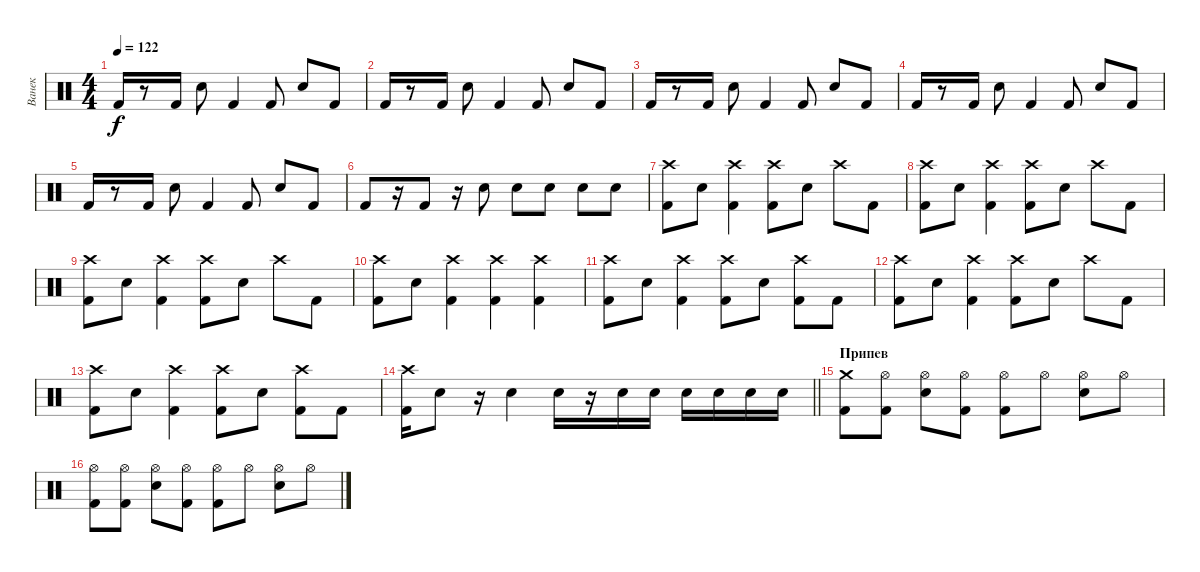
\track ("Ванек" "Ванек") {instrument percussion}
\staff {score}
\articulation defaults
\ts (4 4)
\tempo 122
\clef neutral
\ks c "Kick (hit) 2".16{dy f}
r.8 "Kick (hit) 2".16 "Electric Snare (hit)".8 "Kick (hit) 2".4 "Kick (hit) 2".8 "Electric Snare (hit)".8 "Kick (hit) 2".8 |
"Kick (hit) 2".16 r.8 "Kick (hit) 2".16 "Electric Snare (hit)".8 "Kick (hit) 2".4 "Kick (hit) 2".8 "Electric Snare (hit)".8 "Kick (hit) 2".8 |
"Kick (hit) 2".16 r.8 "Kick (hit) 2".16 "Electric Snare (hit)".8 "Kick (hit) 2".4 "Kick (hit) 2".8 "Electric Snare (hit)".8 "Kick (hit) 2".8 |
"Kick (hit) 2".16 r.8 "Kick (hit) 2".16 "Electric Snare (hit)".8 "Kick (hit) 2".4 "Kick (hit) 2".8 "Electric Snare (hit)".8 "Kick (hit) 2".8 |
"Kick (hit) 2".16 r.8 "Kick (hit) 2".16 "Electric Snare (hit)".8 "Kick (hit) 2".4 "Kick (hit) 2".8 "Electric Snare (hit)".8 "Kick (hit) 2".8 |
"Kick (hit) 2".8 r.16 "Kick (hit) 2".8 r.16 "Electric Snare (hit)".8 "Electric Snare (hit)".8{volume 13} "Electric Snare (hit)".8{volume 14} "Electric Snare (hit)".8{volume 15} "Electric Snare (hit)".8{volume 16} |
("Crash high (hit)" "Kick (hit) 2").8 "Electric Snare (hit)".8 ("Crash high (hit)" "Kick (hit) 2").4 ("Crash high (hit)" "Kick (hit) 2").8 "Electric Snare (hit)".8 "Crash high (hit)".8 "Kick (hit) 2".8 |
("Crash high (hit)" "Kick (hit) 2").8 "Electric Snare (hit)".8 ("Crash high (hit)" "Kick (hit) 2").4 ("Crash high (hit)" "Kick (hit) 2").8 "Electric Snare (hit)".8 "Crash high (hit)".8 "Kick (hit) 2".8 |
("Crash high (hit)" "Kick (hit) 2").8 "Electric Snare (hit)".8 ("Crash high (hit)" "Kick (hit) 2").4 ("Crash high (hit)" "Kick (hit) 2").8 "Electric Snare (hit)".8 "Crash high (hit)".8 "Kick (hit) 2".8 |
("Crash high (hit)" "Kick (hit) 2").8 "Electric Snare (hit)".8 ("Crash high (hit)" "Kick (hit) 2").4 ("Crash high (hit)" "Kick (hit) 2").4 ("Crash high (hit)" "Kick (hit) 2").4 |
("Crash high (hit)" "Kick (hit) 2").8 "Electric Snare (hit)".8 ("Crash high (hit)" "Kick (hit) 2").4 ("Crash high (hit)" "Kick (hit) 2").8 "Electric Snare (hit)".8 ("Crash high (hit)" "Kick (hit) 2").8 "Kick (hit) 2".8 |
("Crash high (hit)" "Kick (hit) 2").8 "Electric Snare (hit)".8 ("Crash high (hit)" "Kick (hit) 2").4 ("Crash high (hit)" "Kick (hit) 2").8 "Electric Snare (hit)".8 "Crash high (hit)".8 "Kick (hit) 2".8 |
("Crash high (hit)" "Kick (hit) 2").8 "Electric Snare (hit)".8 ("Crash high (hit)" "Kick (hit) 2").4 ("Crash high (hit)" "Kick (hit) 2").8 "Electric Snare (hit)".8 ("Crash high (hit)" "Kick (hit) 2").8 "Kick (hit) 2".8 |
\barLineRight lightlight
("Crash high (hit)" "Kick (hit) 2").16 "Electric Snare (hit)".8 r.16 "Electric Snare (hit)".4 "Electric Snare (hit)".16 r.16 "Electric Snare (hit)".16 "Electric Snare (hit)".16 "Electric Snare (hit)".16 "Electric Snare (hit)".16 "Electric Snare (hit)".16 "Electric Snare (hit)".16 |
\section ("" "Припев")
("Crash medium (hit)" "Kick (hit) 2").8 ("Hi-Hat (open)" "Kick (hit) 2").8 ("Hi-Hat (open)" "Electric Snare (hit)").8 ("Hi-Hat (open)" "Kick (hit) 2").8 ("Hi-Hat (open)" "Kick (hit) 2").8 "Hi-Hat (open)".8 ("Hi-Hat (open)" "Electric Snare (hit)").8 "Hi-Hat (open)".8 |
("Hi-Hat (open)" "Kick (hit) 2").8 ("Hi-Hat (open)" "Kick (hit) 2").8 ("Hi-Hat (open)" "Electric Snare (hit)").8 ("Hi-Hat (open)" "Kick (hit) 2").8 ("Hi-Hat (open)" "Kick (hit) 2").8 "Hi-Hat (open)".8 ("Hi-Hat (open)" "Electric Snare (hit)").8 "Hi-Hat (open)".8
